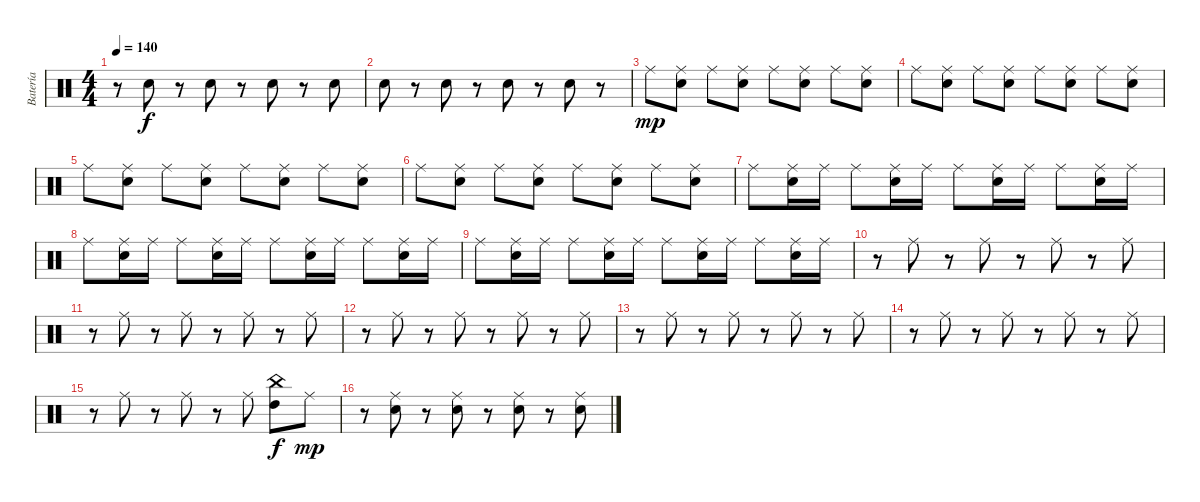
\track ("Batería" "Batería") {instrument percussion}
\staff {score}
\articulation defaults
\ts (4 4)
\tempo 140
\clef neutral
\ks c
r.8{dy f} "Snare (hit) 2".8 r.8 "Snare (hit) 2".8 r.8 "Snare (hit) 2".8 r.8 "Snare (hit) 2".8 |
"Snare (hit) 2".8 r.8 "Snare (hit) 2".8 r.8 "Snare (hit) 2".8 r.8 "Snare (hit) 2".8 r.8 |
"Ride (middle)".8{dy mp} ("Ride (middle)" "Snare (hit) 2").8 "Ride (middle)".8 ("Ride (middle)" "Snare (hit) 2").8 "Ride (middle)".8 ("Ride (middle)" "Snare (hit) 2").8 "Ride (middle)".8 ("Ride (middle)" "Snare (hit) 2").8 |
"Ride (middle)".8 ("Ride (middle)" "Snare (hit) 2").8 "Ride (middle)".8 ("Ride (middle)" "Snare (hit) 2").8 "Ride (middle)".8 ("Ride (middle)" "Snare (hit) 2").8 "Ride (middle)".8 ("Ride (middle)" "Snare (hit) 2").8 |
"Ride (middle)".8 ("Ride (middle)" "Snare (hit) 2").8 "Ride (middle)".8 ("Ride (middle)" "Snare (hit) 2").8 "Ride (middle)".8 ("Ride (middle)" "Snare (hit) 2").8 "Ride (middle)".8 ("Ride (middle)" "Snare (hit) 2").8 |
"Ride (middle)".8 ("Ride (middle)" "Snare (hit) 2").8 "Ride (middle)".8 ("Ride (middle)" "Snare (hit) 2").8 "Ride (middle)".8 ("Ride (middle)" "Snare (hit) 2").8 "Ride (middle)".8 ("Ride (middle)" "Snare (hit) 2").8 |
"Ride (middle)".8 ("Ride (middle)" "Snare (hit) 2").16 "Ride (middle)".16 "Ride (middle)".8 ("Ride (middle)" "Snare (hit) 2").16 "Ride (middle)".16 "Ride (middle)".8 ("Ride (middle)" "Snare (hit) 2").16 "Ride (middle)".16 "Ride (middle)".8 ("Ride (middle)" "Snare (hit) 2").16 "Ride (middle)".16 |
"Ride (middle)".8 ("Ride (middle)" "Snare (hit) 2").16 "Ride (middle)".16 "Ride (middle)".8 ("Ride (middle)" "Snare (hit) 2").16 "Ride (middle)".16 "Ride (middle)".8 ("Ride (middle)" "Snare (hit) 2").16 "Ride (middle)".16 "Ride (middle)".8 ("Ride (middle)" "Snare (hit) 2").16 "Ride (middle)".16 |
"Ride (middle)".8 ("Ride (middle)" "Snare (hit) 2").16 "Ride (middle)".16 "Ride (middle)".8 ("Ride (middle)" "Snare (hit) 2").16 "Ride (middle)".16 "Ride (middle)".8 ("Ride (middle)" "Snare (hit) 2").16 "Ride (middle)".16 "Ride (middle)".8 ("Ride (middle)" "Snare (hit) 2").16 "Ride (middle)".16 |
r.8 "Ride (middle)".8 r.8 "Ride (middle)".8 r.8 "Ride (middle)".8 r.8 "Ride (middle)".8 |
r.8 "Ride (middle)".8 r.8 "Ride (middle)".8 r.8 "Ride (middle)".8 r.8 "Ride (middle)".8 |
r.8 "Ride (middle)".8 r.8 "Ride (middle)".8 r.8 "Ride (middle)".8 r.8 "Ride (middle)".8 |
r.8 "Ride (middle)".8 r.8 "Ride (middle)".8 r.8 "Ride (middle)".8 r.8 "Ride (middle)".8 |
r.8 "Ride (middle)".8 r.8 "Ride (middle)".8 r.8 "Ride (middle)".8 r.8 "Ride (middle)".8 |
r.8 "Ride (middle)".8 r.8 "Ride (middle)".8 r.8 "Ride (middle)".8 ("High Tom (hit)" "China (hit)").8{dy f} "Ride (middle)".8{dy mp} |
r.8 ("Ride (middle)" "Snare (hit) 2").8 r.8 ("Ride (middle)" "Snare (hit) 2").8 r.8 ("Ride (middle)" "Snare (hit) 2").8 r.8 ("Ride (middle)" "Snare (hit) 2").8
